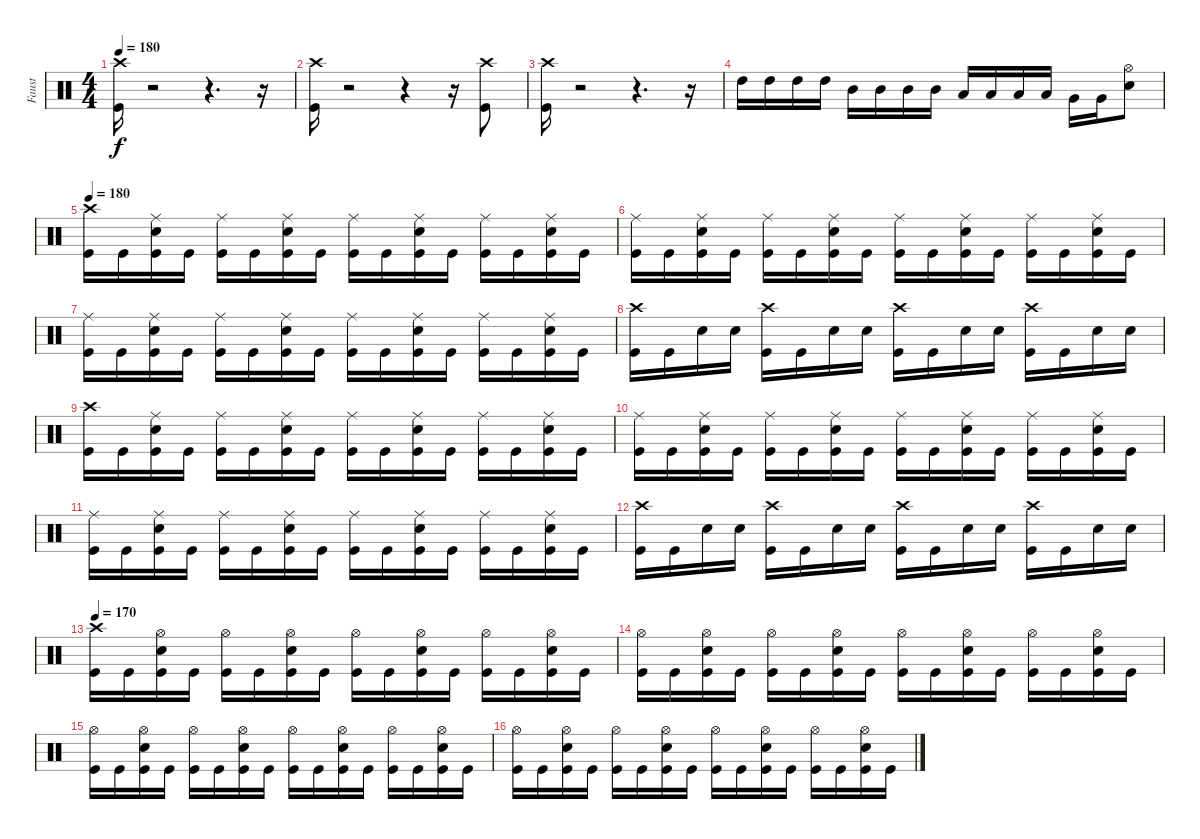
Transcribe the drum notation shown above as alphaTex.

\track ("Faust" "Faust") {instrument percussion}
\staff {score}
\articulation defaults
\ts (4 4)
\tempo 180
\clef neutral
\ks c
("Kick (hit)" "Crash high (hit)").16{dy f} r.2 r.4{d} r.16 |
("Kick (hit)" "Crash high (hit)").16 r.2 r.4 r.16 ("Kick (hit)" "Crash high (hit)").8 |
("Kick (hit)" "Crash high (hit)").16 r.2 r.4{d} r.16 |
"High Tom (hit)".16 "High Tom (hit)".16 "High Tom (hit)".16 "High Tom (hit)".16 "Mid Tom (hit)".16 "Mid Tom (hit)".16 "Mid Tom (hit)".16 "Mid Tom (hit)".16 "Low Tom (hit)".16 "Low Tom (hit)".16 "Low Tom (hit)".16 "Low Tom (hit)".16 "Very Low Tom (hit)".16 "Very Low Tom (hit)".16 ("Snare (hit) 2" "Hi-Hat (open)").8 |
\tempo 180
("Kick (hit)" "Crash high (hit)").16 "Kick (hit)".16 ("Kick (hit)" "Snare (hit) 2" "Ride (middle)").16 "Kick (hit)".16 ("Kick (hit)" "Ride (middle)").16 "Kick (hit)".16 ("Kick (hit)" "Snare (hit) 2" "Ride (middle)").16 "Kick (hit)".16 ("Kick (hit)" "Ride (middle)").16 "Kick (hit)".16 ("Kick (hit)" "Snare (hit) 2" "Ride (middle)").16 "Kick (hit)".16 ("Kick (hit)" "Ride (middle)").16 "Kick (hit)".16 ("Kick (hit)" "Snare (hit) 2" "Ride (middle)").16 "Kick (hit)".16 |
("Kick (hit)" "Ride (middle)").16 "Kick (hit)".16 ("Kick (hit)" "Snare (hit) 2" "Ride (middle)").16 "Kick (hit)".16 ("Kick (hit)" "Ride (middle)").16 "Kick (hit)".16 ("Kick (hit)" "Snare (hit) 2" "Ride (middle)").16 "Kick (hit)".16 ("Kick (hit)" "Ride (middle)").16 "Kick (hit)".16 ("Kick (hit)" "Snare (hit) 2" "Ride (middle)").16 "Kick (hit)".16 ("Kick (hit)" "Ride (middle)").16 "Kick (hit)".16 ("Kick (hit)" "Snare (hit) 2" "Ride (middle)").16 "Kick (hit)".16 |
("Kick (hit)" "Ride (middle)").16 "Kick (hit)".16 ("Kick (hit)" "Snare (hit) 2" "Ride (middle)").16 "Kick (hit)".16 ("Kick (hit)" "Ride (middle)").16 "Kick (hit)".16 ("Kick (hit)" "Snare (hit) 2" "Ride (middle)").16 "Kick (hit)".16 ("Kick (hit)" "Ride (middle)").16 "Kick (hit)".16 ("Kick (hit)" "Snare (hit) 2" "Ride (middle)").16 "Kick (hit)".16 ("Kick (hit)" "Ride (middle)").16 "Kick (hit)".16 ("Kick (hit)" "Snare (hit) 2" "Ride (middle)").16 "Kick (hit)".16 |
("Kick (hit)" "Crash high (hit)").16 "Kick (hit)".16 "Snare (hit) 2".16 "Snare (hit) 2".16 ("Kick (hit)" "Crash high (hit)").16 "Kick (hit)".16 "Snare (hit) 2".16 "Snare (hit) 2".16 ("Kick (hit)" "Crash high (hit)").16 "Kick (hit)".16 "Snare (hit) 2".16 "Snare (hit) 2".16 ("Kick (hit)" "Crash high (hit)").16 "Kick (hit)".16 "Snare (hit) 2".16 "Snare (hit) 2".16 |
("Kick (hit)" "Crash high (hit)").16 "Kick (hit)".16 ("Kick (hit)" "Snare (hit) 2" "Ride (middle)").16 "Kick (hit)".16 ("Kick (hit)" "Ride (middle)").16 "Kick (hit)".16 ("Kick (hit)" "Snare (hit) 2" "Ride (middle)").16 "Kick (hit)".16 ("Kick (hit)" "Ride (middle)").16 "Kick (hit)".16 ("Kick (hit)" "Snare (hit) 2" "Ride (middle)").16 "Kick (hit)".16 ("Kick (hit)" "Ride (middle)").16 "Kick (hit)".16 ("Kick (hit)" "Snare (hit) 2" "Ride (middle)").16 "Kick (hit)".16 |
("Kick (hit)" "Ride (middle)").16 "Kick (hit)".16 ("Kick (hit)" "Snare (hit) 2" "Ride (middle)").16 "Kick (hit)".16 ("Kick (hit)" "Ride (middle)").16 "Kick (hit)".16 ("Kick (hit)" "Snare (hit) 2" "Ride (middle)").16 "Kick (hit)".16 ("Kick (hit)" "Ride (middle)").16 "Kick (hit)".16 ("Kick (hit)" "Snare (hit) 2" "Ride (middle)").16 "Kick (hit)".16 ("Kick (hit)" "Ride (middle)").16 "Kick (hit)".16 ("Kick (hit)" "Snare (hit) 2" "Ride (middle)").16 "Kick (hit)".16 |
("Kick (hit)" "Ride (middle)").16 "Kick (hit)".16 ("Kick (hit)" "Snare (hit) 2" "Ride (middle)").16 "Kick (hit)".16 ("Kick (hit)" "Ride (middle)").16 "Kick (hit)".16 ("Kick (hit)" "Snare (hit) 2" "Ride (middle)").16 "Kick (hit)".16 ("Kick (hit)" "Ride (middle)").16 "Kick (hit)".16 ("Kick (hit)" "Snare (hit) 2" "Ride (middle)").16 "Kick (hit)".16 ("Kick (hit)" "Ride (middle)").16 "Kick (hit)".16 ("Kick (hit)" "Snare (hit) 2" "Ride (middle)").16 "Kick (hit)".16 |
("Kick (hit)" "Crash high (hit)").16 "Kick (hit)".16 "Snare (hit) 2".16 "Snare (hit) 2".16 ("Kick (hit)" "Crash high (hit)").16 "Kick (hit)".16 "Snare (hit) 2".16 "Snare (hit) 2".16 ("Kick (hit)" "Crash high (hit)").16 "Kick (hit)".16 "Snare (hit) 2".16 "Snare (hit) 2".16 ("Kick (hit)" "Crash high (hit)").16 "Kick (hit)".16 "Snare (hit) 2".16 "Snare (hit) 2".16 |
\tempo 170
("Kick (hit)" "Crash high (hit)").16 "Kick (hit)".16 ("Kick (hit)" "Snare (hit) 2" "Hi-Hat (open)").16 "Kick (hit)".16 ("Kick (hit)" "Hi-Hat (open)").16 "Kick (hit)".16 ("Kick (hit)" "Snare (hit) 2" "Hi-Hat (open)").16 "Kick (hit)".16 ("Kick (hit)" "Hi-Hat (open)").16 "Kick (hit)".16 ("Kick (hit)" "Snare (hit) 2" "Hi-Hat (open)").16 "Kick (hit)".16 ("Kick (hit)" "Hi-Hat (open)").16 "Kick (hit)".16 ("Kick (hit)" "Snare (hit) 2" "Hi-Hat (open)").16 "Kick (hit)".16 |
("Kick (hit)" "Hi-Hat (open)").16 "Kick (hit)".16 ("Kick (hit)" "Snare (hit) 2" "Hi-Hat (open)").16 "Kick (hit)".16 ("Kick (hit)" "Hi-Hat (open)").16 "Kick (hit)".16 ("Kick (hit)" "Snare (hit) 2" "Hi-Hat (open)").16 "Kick (hit)".16 ("Kick (hit)" "Hi-Hat (open)").16 "Kick (hit)".16 ("Kick (hit)" "Snare (hit) 2" "Hi-Hat (open)").16 "Kick (hit)".16 ("Kick (hit)" "Hi-Hat (open)").16 "Kick (hit)".16 ("Kick (hit)" "Snare (hit) 2" "Hi-Hat (open)").16 "Kick (hit)".16 |
("Kick (hit)" "Hi-Hat (open)").16 "Kick (hit)".16 ("Kick (hit)" "Snare (hit) 2" "Hi-Hat (open)").16 "Kick (hit)".16 ("Kick (hit)" "Hi-Hat (open)").16 "Kick (hit)".16 ("Kick (hit)" "Snare (hit) 2" "Hi-Hat (open)").16 "Kick (hit)".16 ("Kick (hit)" "Hi-Hat (open)").16 "Kick (hit)".16 ("Kick (hit)" "Snare (hit) 2" "Hi-Hat (open)").16 "Kick (hit)".16 ("Kick (hit)" "Hi-Hat (open)").16 "Kick (hit)".16 ("Kick (hit)" "Snare (hit) 2" "Hi-Hat (open)").16 "Kick (hit)".16 |
("Kick (hit)" "Hi-Hat (open)").16 "Kick (hit)".16 ("Kick (hit)" "Snare (hit) 2" "Hi-Hat (open)").16 "Kick (hit)".16 ("Kick (hit)" "Hi-Hat (open)").16 "Kick (hit)".16 ("Kick (hit)" "Snare (hit) 2" "Hi-Hat (open)").16 "Kick (hit)".16 ("Kick (hit)" "Hi-Hat (open)").16 "Kick (hit)".16 ("Kick (hit)" "Snare (hit) 2" "Hi-Hat (open)").16 "Kick (hit)".16 ("Kick (hit)" "Hi-Hat (open)").16 "Kick (hit)".16 ("Kick (hit)" "Snare (hit) 2" "Hi-Hat (open)").16 "Kick (hit)".16
